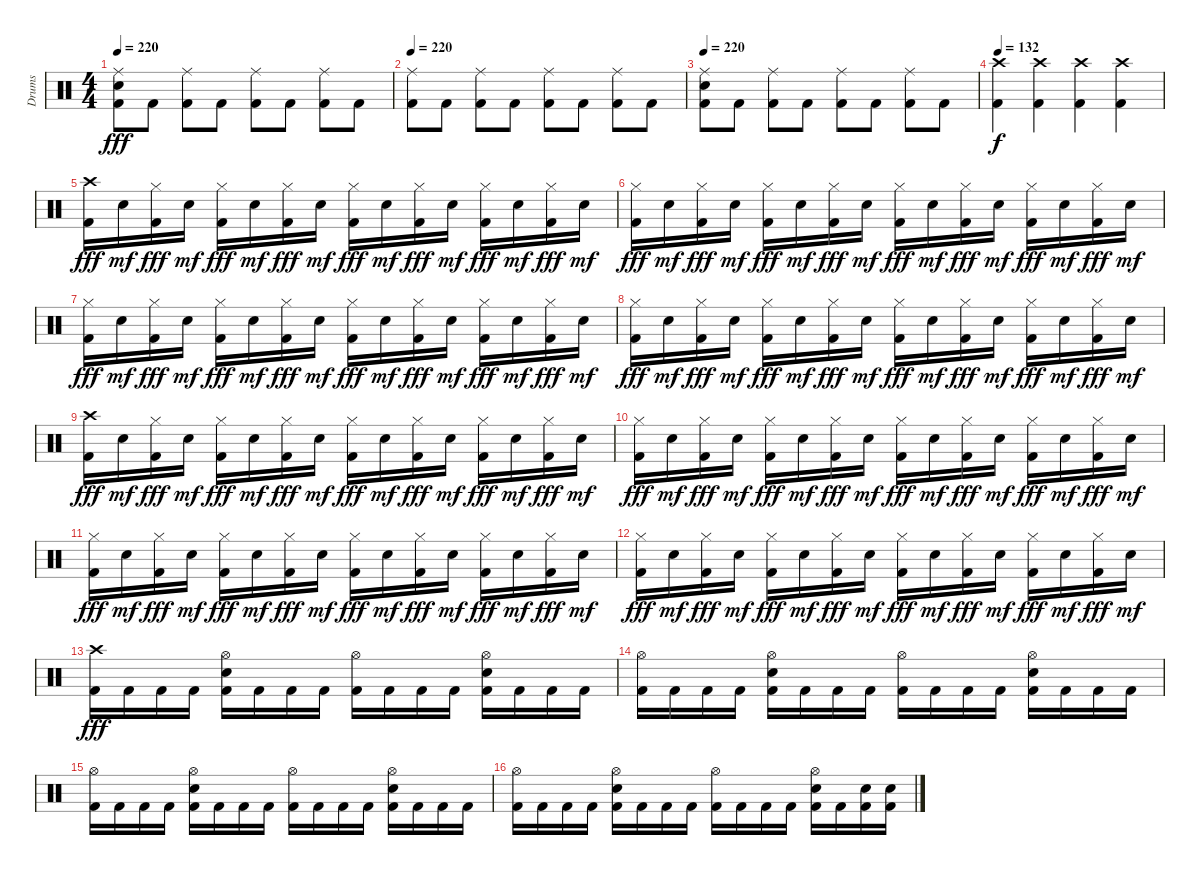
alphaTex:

\track ("Drums" "Drums") {instrument percussion}
\staff {score}
\articulation defaults
\ts (4 4)
\tempo 220
\clef neutral
\ks c
("Ride (middle)" "Snare (hit) 2" "Kick (hit) 2").8{dy fff} "Kick (hit) 2".8 ("Ride (middle)" "Kick (hit) 2").8 "Kick (hit) 2".8 ("Ride (middle)" "Kick (hit) 2").8 "Kick (hit) 2".8 ("Ride (middle)" "Kick (hit) 2").8 "Kick (hit) 2".8 |
\tempo 220
("Ride (middle)" "Kick (hit) 2").8 "Kick (hit) 2".8 ("Ride (middle)" "Kick (hit) 2").8 "Kick (hit) 2".8 ("Ride (middle)" "Kick (hit) 2").8 "Kick (hit) 2".8 ("Ride (middle)" "Kick (hit) 2").8 "Kick (hit) 2".8 |
\tempo 220
("Ride (middle)" "Snare (hit) 2" "Kick (hit) 2").8 "Kick (hit) 2".8 ("Ride (middle)" "Kick (hit) 2").8 "Kick (hit) 2".8 ("Ride (middle)" "Kick (hit) 2").8 "Kick (hit) 2".8 ("Ride (middle)" "Kick (hit) 2").8 "Kick (hit) 2".8 |
\tempo 132
("Crash high (hit)" "Kick (hit) 2").4{dy f} ("Crash high (hit)" "Kick (hit) 2").4 ("Crash high (hit)" "Kick (hit) 2").4 ("Crash high (hit)" "Kick (hit) 2").4 |
("Crash high (hit)" "Kick (hit) 2").16{dy fff} "Snare (hit) 2".16{dy mf} ("Hi-Hat (closed)" "Kick (hit) 2").16{dy fff} "Snare (hit) 2".16{dy mf} ("Hi-Hat (closed)" "Kick (hit) 2").16{dy fff} "Snare (hit) 2".16{dy mf} ("Hi-Hat (closed)" "Kick (hit) 2").16{dy fff} "Snare (hit) 2".16{dy mf} ("Hi-Hat (closed)" "Kick (hit) 2").16{dy fff} "Snare (hit) 2".16{dy mf} ("Hi-Hat (closed)" "Kick (hit) 2").16{dy fff} "Snare (hit) 2".16{dy mf} ("Hi-Hat (closed)" "Kick (hit) 2").16{dy fff} "Snare (hit) 2".16{dy mf} ("Hi-Hat (closed)" "Kick (hit) 2").16{dy fff} "Snare (hit) 2".16{dy mf} |
("Hi-Hat (closed)" "Kick (hit) 2").16{dy fff} "Snare (hit) 2".16{dy mf} ("Hi-Hat (closed)" "Kick (hit) 2").16{dy fff} "Snare (hit) 2".16{dy mf} ("Hi-Hat (closed)" "Kick (hit) 2").16{dy fff} "Snare (hit) 2".16{dy mf} ("Hi-Hat (closed)" "Kick (hit) 2").16{dy fff} "Snare (hit) 2".16{dy mf} ("Hi-Hat (closed)" "Kick (hit) 2").16{dy fff} "Snare (hit) 2".16{dy mf} ("Hi-Hat (closed)" "Kick (hit) 2").16{dy fff} "Snare (hit) 2".16{dy mf} ("Hi-Hat (closed)" "Kick (hit) 2").16{dy fff} "Snare (hit) 2".16{dy mf} ("Hi-Hat (closed)" "Kick (hit) 2").16{dy fff} "Snare (hit) 2".16{dy mf} |
("Hi-Hat (closed)" "Kick (hit) 2").16{dy fff} "Snare (hit) 2".16{dy mf} ("Hi-Hat (closed)" "Kick (hit) 2").16{dy fff} "Snare (hit) 2".16{dy mf} ("Hi-Hat (closed)" "Kick (hit) 2").16{dy fff} "Snare (hit) 2".16{dy mf} ("Hi-Hat (closed)" "Kick (hit) 2").16{dy fff} "Snare (hit) 2".16{dy mf} ("Hi-Hat (closed)" "Kick (hit) 2").16{dy fff} "Snare (hit) 2".16{dy mf} ("Hi-Hat (closed)" "Kick (hit) 2").16{dy fff} "Snare (hit) 2".16{dy mf} ("Hi-Hat (closed)" "Kick (hit) 2").16{dy fff} "Snare (hit) 2".16{dy mf} ("Hi-Hat (closed)" "Kick (hit) 2").16{dy fff} "Snare (hit) 2".16{dy mf} |
("Hi-Hat (closed)" "Kick (hit) 2").16{dy fff} "Snare (hit) 2".16{dy mf} ("Hi-Hat (closed)" "Kick (hit) 2").16{dy fff} "Snare (hit) 2".16{dy mf} ("Hi-Hat (closed)" "Kick (hit) 2").16{dy fff} "Snare (hit) 2".16{dy mf} ("Hi-Hat (closed)" "Kick (hit) 2").16{dy fff} "Snare (hit) 2".16{dy mf} ("Hi-Hat (closed)" "Kick (hit) 2").16{dy fff} "Snare (hit) 2".16{dy mf} ("Hi-Hat (closed)" "Kick (hit) 2").16{dy fff} "Snare (hit) 2".16{dy mf} ("Hi-Hat (closed)" "Kick (hit) 2").16{dy fff} "Snare (hit) 2".16{dy mf} ("Hi-Hat (closed)" "Kick (hit) 2").16{dy fff} "Snare (hit) 2".16{dy mf} |
("Crash high (hit)" "Kick (hit) 2").16{dy fff} "Snare (hit) 2".16{dy mf} ("Hi-Hat (closed)" "Kick (hit) 2").16{dy fff} "Snare (hit) 2".16{dy mf} ("Hi-Hat (closed)" "Kick (hit) 2").16{dy fff} "Snare (hit) 2".16{dy mf} ("Hi-Hat (closed)" "Kick (hit) 2").16{dy fff} "Snare (hit) 2".16{dy mf} ("Hi-Hat (closed)" "Kick (hit) 2").16{dy fff} "Snare (hit) 2".16{dy mf} ("Hi-Hat (closed)" "Kick (hit) 2").16{dy fff} "Snare (hit) 2".16{dy mf} ("Hi-Hat (closed)" "Kick (hit) 2").16{dy fff} "Snare (hit) 2".16{dy mf} ("Hi-Hat (closed)" "Kick (hit) 2").16{dy fff} "Snare (hit) 2".16{dy mf} |
("Hi-Hat (closed)" "Kick (hit) 2").16{dy fff} "Snare (hit) 2".16{dy mf} ("Hi-Hat (closed)" "Kick (hit) 2").16{dy fff} "Snare (hit) 2".16{dy mf} ("Hi-Hat (closed)" "Kick (hit) 2").16{dy fff} "Snare (hit) 2".16{dy mf} ("Hi-Hat (closed)" "Kick (hit) 2").16{dy fff} "Snare (hit) 2".16{dy mf} ("Hi-Hat (closed)" "Kick (hit) 2").16{dy fff} "Snare (hit) 2".16{dy mf} ("Hi-Hat (closed)" "Kick (hit) 2").16{dy fff} "Snare (hit) 2".16{dy mf} ("Hi-Hat (closed)" "Kick (hit) 2").16{dy fff} "Snare (hit) 2".16{dy mf} ("Hi-Hat (closed)" "Kick (hit) 2").16{dy fff} "Snare (hit) 2".16{dy mf} |
("Hi-Hat (closed)" "Kick (hit) 2").16{dy fff} "Snare (hit) 2".16{dy mf} ("Hi-Hat (closed)" "Kick (hit) 2").16{dy fff} "Snare (hit) 2".16{dy mf} ("Hi-Hat (closed)" "Kick (hit) 2").16{dy fff} "Snare (hit) 2".16{dy mf} ("Hi-Hat (closed)" "Kick (hit) 2").16{dy fff} "Snare (hit) 2".16{dy mf} ("Hi-Hat (closed)" "Kick (hit) 2").16{dy fff} "Snare (hit) 2".16{dy mf} ("Hi-Hat (closed)" "Kick (hit) 2").16{dy fff} "Snare (hit) 2".16{dy mf} ("Hi-Hat (closed)" "Kick (hit) 2").16{dy fff} "Snare (hit) 2".16{dy mf} ("Hi-Hat (closed)" "Kick (hit) 2").16{dy fff} "Snare (hit) 2".16{dy mf} |
("Hi-Hat (closed)" "Kick (hit) 2").16{dy fff} "Snare (hit) 2".16{dy mf} ("Hi-Hat (closed)" "Kick (hit) 2").16{dy fff} "Snare (hit) 2".16{dy mf} ("Hi-Hat (closed)" "Kick (hit) 2").16{dy fff} "Snare (hit) 2".16{dy mf} ("Hi-Hat (closed)" "Kick (hit) 2").16{dy fff} "Snare (hit) 2".16{dy mf} ("Hi-Hat (closed)" "Kick (hit) 2").16{dy fff} "Snare (hit) 2".16{dy mf} ("Hi-Hat (closed)" "Kick (hit) 2").16{dy fff} "Snare (hit) 2".16{dy mf} ("Hi-Hat (closed)" "Kick (hit) 2").16{dy fff} "Snare (hit) 2".16{dy mf} ("Hi-Hat (closed)" "Kick (hit) 2").16{dy fff} "Snare (hit) 2".16{dy mf} |
("Crash high (hit)" "Kick (hit) 2").16{dy fff} "Kick (hit) 2".16 "Kick (hit) 2".16 "Kick (hit) 2".16 ("Hi-Hat (open)" "Snare (hit) 2" "Kick (hit) 2").16 "Kick (hit) 2".16 "Kick (hit) 2".16 "Kick (hit) 2".16 ("Hi-Hat (open)" "Kick (hit) 2").16 "Kick (hit) 2".16 "Kick (hit) 2".16 "Kick (hit) 2".16 ("Hi-Hat (open)" "Snare (hit) 2" "Kick (hit) 2").16 "Kick (hit) 2".16 "Kick (hit) 2".16 "Kick (hit) 2".16 |
("Hi-Hat (open)" "Kick (hit) 2").16 "Kick (hit) 2".16 "Kick (hit) 2".16 "Kick (hit) 2".16 ("Hi-Hat (open)" "Snare (hit) 2" "Kick (hit) 2").16 "Kick (hit) 2".16 "Kick (hit) 2".16 "Kick (hit) 2".16 ("Hi-Hat (open)" "Kick (hit) 2").16 "Kick (hit) 2".16 "Kick (hit) 2".16 "Kick (hit) 2".16 ("Hi-Hat (open)" "Snare (hit) 2" "Kick (hit) 2").16 "Kick (hit) 2".16 "Kick (hit) 2".16 "Kick (hit) 2".16 |
("Hi-Hat (open)" "Kick (hit) 2").16 "Kick (hit) 2".16 "Kick (hit) 2".16 "Kick (hit) 2".16 ("Hi-Hat (open)" "Snare (hit) 2" "Kick (hit) 2").16 "Kick (hit) 2".16 "Kick (hit) 2".16 "Kick (hit) 2".16 ("Hi-Hat (open)" "Kick (hit) 2").16 "Kick (hit) 2".16 "Kick (hit) 2".16 "Kick (hit) 2".16 ("Hi-Hat (open)" "Snare (hit) 2" "Kick (hit) 2").16 "Kick (hit) 2".16 "Kick (hit) 2".16 "Kick (hit) 2".16 |
("Hi-Hat (open)" "Kick (hit) 2").16 "Kick (hit) 2".16 "Kick (hit) 2".16 "Kick (hit) 2".16 ("Hi-Hat (open)" "Snare (hit) 2" "Kick (hit) 2").16 "Kick (hit) 2".16 "Kick (hit) 2".16 "Kick (hit) 2".16 ("Hi-Hat (open)" "Kick (hit) 2").16 "Kick (hit) 2".16 "Kick (hit) 2".16 "Kick (hit) 2".16 ("Hi-Hat (open)" "Snare (hit) 2" "Kick (hit) 2").16 "Kick (hit) 2".16 ("Snare (hit) 2" "Kick (hit) 2").16 ("Snare (hit) 2" "Kick (hit) 2").16
